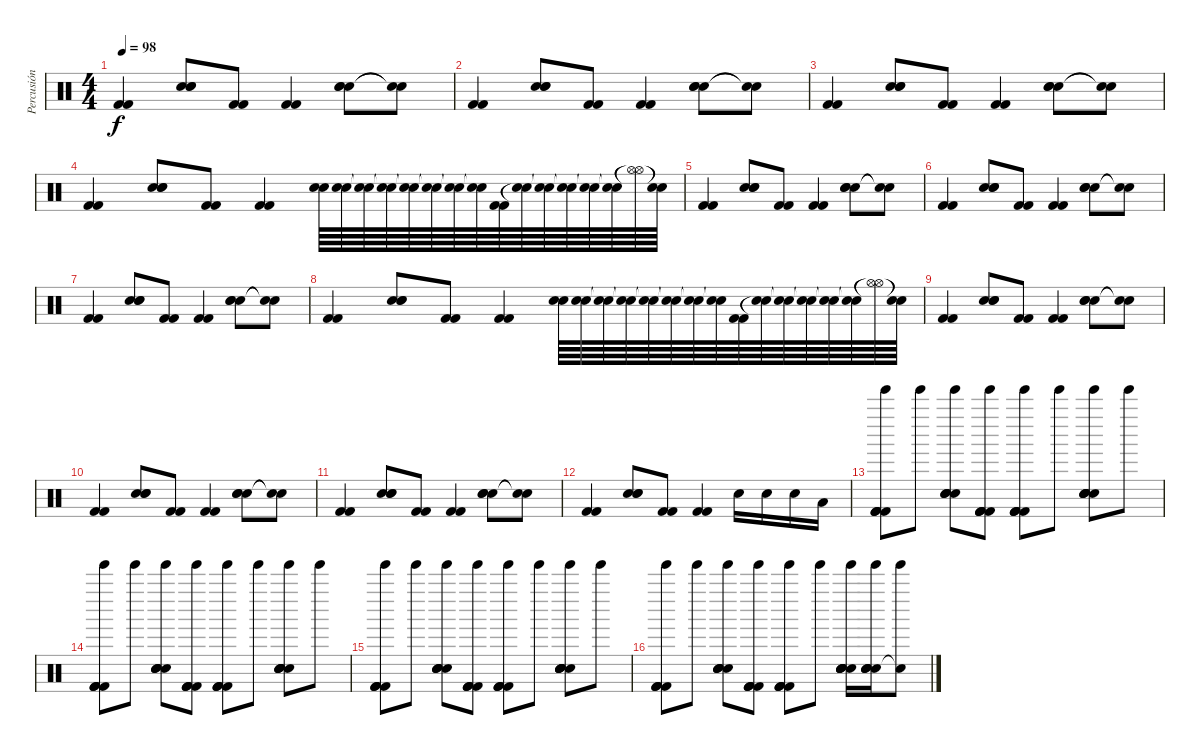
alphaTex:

\track ("Percusión" "Percusión") {instrument percussion}
\staff {score}
\articulation defaults
\ts (4 4)
\tempo 98
\clef neutral
\ks c
("Kick (hit) 2" "Kick (hit) 2").4{dy f} ("Electric Snare (hit)" "Electric Snare (hit)" "Electric Snare (hit)").8 ("Kick (hit) 2" "Kick (hit) 2").8 ("Kick (hit) 2" "Kick (hit) 2").4 ("Electric Snare (hit)" "Electric Snare (hit)" "Electric Snare (hit)").8 ("Snare (hit)"{t} "Snare (hit)"{t}).8 |
("Kick (hit) 2" "Kick (hit) 2").4 ("Electric Snare (hit)" "Electric Snare (hit)" "Electric Snare (hit)").8 ("Kick (hit) 2" "Kick (hit) 2").8 ("Kick (hit) 2" "Kick (hit) 2").4 ("Electric Snare (hit)" "Electric Snare (hit)" "Electric Snare (hit)").8 ("Snare (hit)"{t} "Snare (hit)"{t}).8 |
("Kick (hit) 2" "Kick (hit) 2").4 ("Electric Snare (hit)" "Electric Snare (hit)" "Electric Snare (hit)").8 ("Kick (hit) 2" "Kick (hit) 2").8 ("Kick (hit) 2" "Kick (hit) 2").4 ("Electric Snare (hit)" "Electric Snare (hit)" "Electric Snare (hit)").8 ("Snare (hit)"{t} "Snare (hit)"{t}).8 |
("Kick (hit) 2" "Kick (hit) 2").4 ("Electric Snare (hit)" "Electric Snare (hit)" "Electric Snare (hit)").8 ("Kick (hit) 2" "Kick (hit) 2").8 ("Kick (hit) 2" "Kick (hit) 2").4 ("Electric Snare (hit)" "Electric Snare (hit)").64 ("Electric Snare (hit)" "Electric Snare (hit)").64 ("Electric Snare (hit)"{t} "Electric Snare (hit)"{t}).64 ("Electric Snare (hit)"{t} "Electric Snare (hit)"{t}).64 ("Electric Snare (hit)"{t} "Electric Snare (hit)"{t}).64 ("Electric Snare (hit)"{t} "Electric Snare (hit)"{t}).64 ("Snare (hit)"{t} "Snare (hit)"{t}).64 ("Snare (hit)"{t} "Snare (hit)"{t}).64 ("Kick (hit) 2" "Kick (hit) 2").64 ("Snare (hit)"{t} "Snare (hit)"{t}).64 ("Snare (hit)"{t} "Snare (hit)"{t}).64 ("Snare (hit)"{t} "Snare (hit)"{t}).64 ("Snare (hit)"{t} "Snare (hit)"{t}).64 ("Snare (hit)"{t} "Snare (hit)"{t}).64 ("Hi-Hat (open)"{t} "Hi-Hat (open)"{t}).64 ("Snare (hit)"{t} "Snare (hit)"{t}).64 |
("Kick (hit) 2" "Kick (hit) 2").4 ("Electric Snare (hit)" "Electric Snare (hit)" "Electric Snare (hit)").8 ("Kick (hit) 2" "Kick (hit) 2").8 ("Kick (hit) 2" "Kick (hit) 2").4 ("Electric Snare (hit)" "Electric Snare (hit)" "Electric Snare (hit)").8 ("Snare (hit)"{t} "Snare (hit)"{t}).8 |
("Kick (hit) 2" "Kick (hit) 2").4 ("Electric Snare (hit)" "Electric Snare (hit)" "Electric Snare (hit)").8 ("Kick (hit) 2" "Kick (hit) 2").8 ("Kick (hit) 2" "Kick (hit) 2").4 ("Electric Snare (hit)" "Electric Snare (hit)" "Electric Snare (hit)").8 ("Snare (hit)"{t} "Snare (hit)"{t}).8 |
("Kick (hit) 2" "Kick (hit) 2").4 ("Electric Snare (hit)" "Electric Snare (hit)" "Electric Snare (hit)").8 ("Kick (hit) 2" "Kick (hit) 2").8 ("Kick (hit) 2" "Kick (hit) 2").4 ("Electric Snare (hit)" "Electric Snare (hit)" "Electric Snare (hit)").8 ("Electric Snare (hit)"{t} "Snare (hit)"{t}).8 |
("Kick (hit) 2" "Kick (hit) 2").4 ("Electric Snare (hit)" "Electric Snare (hit)" "Electric Snare (hit)").8 ("Kick (hit) 2" "Kick (hit) 2").8 ("Kick (hit) 2" "Kick (hit) 2").4 ("Electric Snare (hit)" "Electric Snare (hit)").64 ("Electric Snare (hit)" "Electric Snare (hit)").64 ("Electric Snare (hit)"{t} "Electric Snare (hit)"{t}).64 ("Electric Snare (hit)"{t} "Electric Snare (hit)"{t}).64 ("Electric Snare (hit)"{t} "Electric Snare (hit)"{t}).64 ("Electric Snare (hit)"{t} "Electric Snare (hit)"{t}).64 ("Snare (hit)"{t} "Snare (hit)"{t}).64 ("Snare (hit)"{t} "Snare (hit)"{t}).64 ("Kick (hit) 2" "Kick (hit) 2").64 ("Snare (hit)"{t} "Snare (hit)"{t}).64 ("Snare (hit)"{t} "Snare (hit)"{t}).64 ("Snare (hit)"{t} "Snare (hit)"{t}).64 ("Snare (hit)"{t} "Snare (hit)"{t}).64 ("Snare (hit)"{t} "Snare (hit)"{t}).64 ("Hi-Hat (open)"{t} "Hi-Hat (open)"{t}).64 ("Snare (hit)"{t} "Snare (hit)"{t}).64 |
("Kick (hit) 2" "Kick (hit) 2").4 ("Electric Snare (hit)" "Electric Snare (hit)" "Electric Snare (hit)").8 ("Kick (hit) 2" "Kick (hit) 2").8 ("Kick (hit) 2" "Kick (hit) 2").4 ("Electric Snare (hit)" "Electric Snare (hit)" "Electric Snare (hit)").8 ("Electric Snare (hit)"{t} "Snare (hit)"{t}).8 |
("Kick (hit) 2" "Kick (hit) 2").4 ("Electric Snare (hit)" "Electric Snare (hit)" "Electric Snare (hit)").8 ("Kick (hit) 2" "Kick (hit) 2").8 ("Kick (hit) 2" "Kick (hit) 2").4 ("Electric Snare (hit)" "Electric Snare (hit)" "Electric Snare (hit)").8 ("Electric Snare (hit)"{t} "Snare (hit)"{t}).8 |
("Kick (hit) 2" "Kick (hit) 2").4 ("Electric Snare (hit)" "Electric Snare (hit)" "Electric Snare (hit)").8 ("Kick (hit) 2" "Kick (hit) 2").8 ("Kick (hit) 2" "Kick (hit) 2").4 ("Electric Snare (hit)" "Electric Snare (hit)" "Electric Snare (hit)").8 ("Electric Snare (hit)"{t} "Snare (hit)"{t}).8 |
("Kick (hit) 2" "Kick (hit) 2").4 ("Electric Snare (hit)" "Electric Snare (hit)" "Electric Snare (hit)").8 ("Kick (hit) 2" "Kick (hit) 2").8 ("Kick (hit) 2" "Kick (hit) 2").4 "Snare (hit) 2".16 "Snare (hit) 2".16 "Snare (hit) 2".16 "Low Floor Tom (hit)".16 |
("Tinkle Bell (hit)" "Kick (hit) 2" "Kick (hit) 2" "Kick (hit) 2" "Kick (hit) 2").8 "Tinkle Bell (hit)".8 ("Tinkle Bell (hit)" "Electric Snare (hit)" "Electric Snare (hit)" "Electric Snare (hit)" "Electric Snare (hit)").8 ("Tinkle Bell (hit)" "Kick (hit) 2" "Kick (hit) 2" "Kick (hit) 2" "Kick (hit) 2").8 ("Tinkle Bell (hit)" "Kick (hit) 2" "Kick (hit) 2" "Kick (hit) 2" "Kick (hit) 2").8 "Tinkle Bell (hit)".8 ("Tinkle Bell (hit)" "Electric Snare (hit)" "Electric Snare (hit)" "Electric Snare (hit)" "Electric Snare (hit)" "Hand Clap (hit)").8 "Tinkle Bell (hit)".8 |
("Tinkle Bell (hit)" "Kick (hit) 2" "Kick (hit) 2" "Kick (hit) 2" "Kick (hit) 2").8 "Tinkle Bell (hit)".8 ("Tinkle Bell (hit)" "Electric Snare (hit)" "Electric Snare (hit)" "Electric Snare (hit)" "Electric Snare (hit)").8 ("Tinkle Bell (hit)" "Kick (hit) 2" "Kick (hit) 2" "Kick (hit) 2" "Kick (hit) 2").8 ("Tinkle Bell (hit)" "Kick (hit) 2" "Kick (hit) 2" "Kick (hit) 2" "Kick (hit) 2").8 "Tinkle Bell (hit)".8 ("Tinkle Bell (hit)" "Electric Snare (hit)" "Electric Snare (hit)" "Electric Snare (hit)" "Electric Snare (hit)" "Hand Clap (hit)").8 "Tinkle Bell (hit)".8 |
("Tinkle Bell (hit)" "Kick (hit) 2" "Kick (hit) 2" "Kick (hit) 2" "Kick (hit) 2").8 "Tinkle Bell (hit)".8 ("Tinkle Bell (hit)" "Electric Snare (hit)" "Electric Snare (hit)" "Electric Snare (hit)" "Electric Snare (hit)").8 ("Tinkle Bell (hit)" "Kick (hit) 2" "Kick (hit) 2" "Kick (hit) 2" "Kick (hit) 2").8 ("Tinkle Bell (hit)" "Kick (hit) 2" "Kick (hit) 2" "Kick (hit) 2" "Kick (hit) 2").8 "Tinkle Bell (hit)".8 ("Tinkle Bell (hit)" "Electric Snare (hit)" "Electric Snare (hit)" "Electric Snare (hit)" "Electric Snare (hit)" "Hand Clap (hit)").8 "Tinkle Bell (hit)".8 |
("Tinkle Bell (hit)" "Kick (hit) 2" "Kick (hit) 2" "Kick (hit) 2" "Kick (hit) 2").8 "Tinkle Bell (hit)".8 ("Tinkle Bell (hit)" "Electric Snare (hit)" "Electric Snare (hit)" "Electric Snare (hit)" "Electric Snare (hit)").8 ("Tinkle Bell (hit)" "Kick (hit) 2" "Kick (hit) 2" "Kick (hit) 2" "Kick (hit) 2").8 ("Tinkle Bell (hit)" "Kick (hit) 2" "Kick (hit) 2" "Kick (hit) 2" "Kick (hit) 2").8 "Tinkle Bell (hit)".8 ("Tinkle Bell (hit)" "Electric Snare (hit)" "Electric Snare (hit)" "Electric Snare (hit)" "Electric Snare (hit)" "Hand Clap (hit)").16 ("Tinkle Bell (hit)" "Electric Snare (hit)" "Electric Snare (hit)" "Electric Snare (hit)" "Electric Snare (hit)").16 ("Tinkle Bell (hit)" "Snare (hit)"{t}).8
